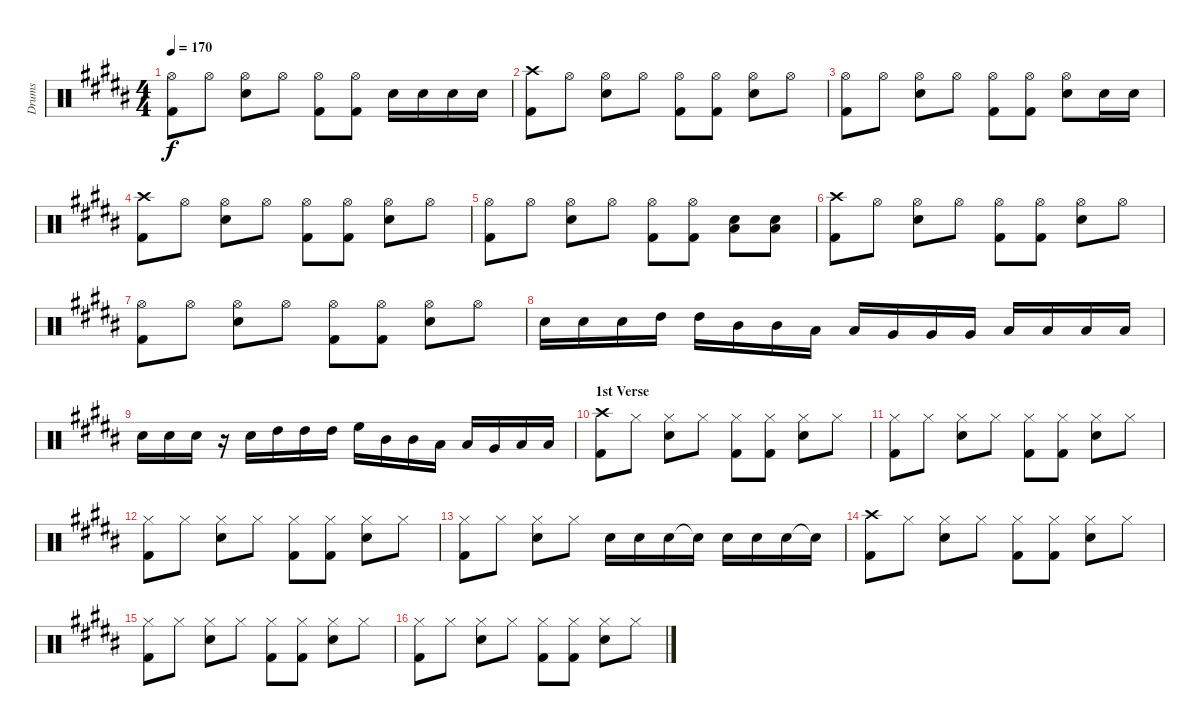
\track ("Drums" "Drums") {instrument percussion}
\staff {score}
\articulation defaults
\ts (4 4)
\tempo 170
\clef neutral
\ks b
("Hi-Hat (open)" "Kick (hit) 2").8{dy f} "Hi-Hat (open)".8 ("Hi-Hat (open)" "Electric Snare (hit)").8 "Hi-Hat (open)".8 ("Hi-Hat (open)" "Kick (hit) 2").8 ("Hi-Hat (open)" "Kick (hit) 2").8 "Electric Snare (hit)".16 "Electric Snare (hit)".16 "Electric Snare (hit)".16 "Electric Snare (hit)".16 |
("Crash high (hit)" "Kick (hit) 2").8 "Hi-Hat (open)".8 ("Hi-Hat (open)" "Electric Snare (hit)").8 "Hi-Hat (open)".8 ("Hi-Hat (open)" "Kick (hit) 2").8 ("Hi-Hat (open)" "Kick (hit) 2").8 ("Hi-Hat (open)" "Electric Snare (hit)").8 "Hi-Hat (open)".8 |
("Hi-Hat (open)" "Kick (hit) 2").8 "Hi-Hat (open)".8 ("Hi-Hat (open)" "Electric Snare (hit)").8 "Hi-Hat (open)".8 ("Hi-Hat (open)" "Kick (hit) 2").8 ("Hi-Hat (open)" "Kick (hit) 2").8 ("Hi-Hat (open)" "Electric Snare (hit)").8 "Electric Snare (hit)".16 "Electric Snare (hit)".16 |
("Crash high (hit)" "Kick (hit) 2").8 "Hi-Hat (open)".8 ("Hi-Hat (open)" "Electric Snare (hit)").8 "Hi-Hat (open)".8 ("Hi-Hat (open)" "Kick (hit) 2").8 ("Hi-Hat (open)" "Kick (hit) 2").8 ("Hi-Hat (open)" "Electric Snare (hit)").8 "Hi-Hat (open)".8 |
("Hi-Hat (open)" "Kick (hit) 2").8 "Hi-Hat (open)".8 ("Hi-Hat (open)" "Electric Snare (hit)").8 "Hi-Hat (open)".8 ("Hi-Hat (open)" "Kick (hit) 2").8 ("Hi-Hat (open)" "Kick (hit) 2").8 ("Low Tom (hit)" "Electric Snare (hit)").8 ("Low Tom (hit)" "Electric Snare (hit)").8 |
("Crash high (hit)" "Kick (hit) 2").8 "Hi-Hat (open)".8 ("Hi-Hat (open)" "Electric Snare (hit)").8 "Hi-Hat (open)".8 ("Hi-Hat (open)" "Kick (hit) 2").8 ("Hi-Hat (open)" "Kick (hit) 2").8 ("Hi-Hat (open)" "Electric Snare (hit)").8 "Hi-Hat (open)".8 |
("Hi-Hat (open)" "Kick (hit) 2").8 "Hi-Hat (open)".8 ("Hi-Hat (open)" "Electric Snare (hit)").8 "Hi-Hat (open)".8 ("Hi-Hat (open)" "Kick (hit) 2").8 ("Hi-Hat (open)" "Kick (hit) 2").8 ("Hi-Hat (open)" "Electric Snare (hit)").8 "Hi-Hat (open)".8 |
"Electric Snare (hit)".16 "Electric Snare (hit)".16 "Electric Snare (hit)".16 "High Tom (hit)".16 "High Tom (hit)".16 "Mid Tom (hit)".16 "Mid Tom (hit)".16 "Low Tom (hit)".16 "Low Tom (hit)".16 "Very Low Tom (hit)".16 "Very Low Tom (hit)".16 "Very Low Tom (hit)".16 "Low Floor Tom (hit)".16 "Low Floor Tom (hit)".16 "Low Floor Tom (hit)".16 "Low Floor Tom (hit)".16 |
"Electric Snare (hit)".16 "Electric Snare (hit)".16 "Electric Snare (hit)".16 r.16 "Electric Snare (hit)".16 "High Tom (hit)".16 "High Tom (hit)".16 "High Tom (hit)".16 "High Floor Tom (hit)".16 "Mid Tom (hit)".16 "Mid Tom (hit)".16 "Low Tom (hit)".16 "Low Tom (hit)".16 "Very Low Tom (hit)".16 "Low Floor Tom (hit)".16 "Low Floor Tom (hit)".16 |
\section ("" "1st Verse")
("Crash high (hit)" "Kick (hit) 2").8 "Hi-Hat (closed)".8 ("Hi-Hat (closed)" "Electric Snare (hit)").8 "Hi-Hat (closed)".8 ("Hi-Hat (closed)" "Kick (hit) 2").8 ("Hi-Hat (closed)" "Kick (hit) 2").8 ("Hi-Hat (closed)" "Electric Snare (hit)").8 "Hi-Hat (closed)".8 |
("Hi-Hat (closed)" "Kick (hit) 2").8 "Hi-Hat (closed)".8 ("Hi-Hat (closed)" "Electric Snare (hit)").8 "Hi-Hat (closed)".8 ("Hi-Hat (closed)" "Kick (hit) 2").8 ("Hi-Hat (closed)" "Kick (hit) 2").8 ("Hi-Hat (closed)" "Electric Snare (hit)").8 "Hi-Hat (closed)".8 |
("Hi-Hat (closed)" "Kick (hit) 2").8 "Hi-Hat (closed)".8 ("Hi-Hat (closed)" "Electric Snare (hit)").8 "Hi-Hat (closed)".8 ("Hi-Hat (closed)" "Kick (hit) 2").8 ("Hi-Hat (closed)" "Kick (hit) 2").8 ("Hi-Hat (closed)" "Electric Snare (hit)").8 "Hi-Hat (closed)".8 |
("Hi-Hat (closed)" "Kick (hit) 2").8 "Hi-Hat (closed)".8 ("Hi-Hat (closed)" "Electric Snare (hit)").8 "Hi-Hat (closed)".8 "Electric Snare (hit)".16 "Electric Snare (hit)".16 "Electric Snare (hit)".16 "Electric Snare (hit)"{t}.16 "Electric Snare (hit)".16 "Electric Snare (hit)".16 "Electric Snare (hit)".16 "Electric Snare (hit)"{t}.16 |
("Crash high (hit)" "Kick (hit) 2").8 "Hi-Hat (closed)".8 ("Hi-Hat (closed)" "Electric Snare (hit)").8 "Hi-Hat (closed)".8 ("Hi-Hat (closed)" "Kick (hit) 2").8 ("Hi-Hat (closed)" "Kick (hit) 2").8 ("Hi-Hat (closed)" "Electric Snare (hit)").8 "Hi-Hat (closed)".8 |
("Hi-Hat (closed)" "Kick (hit) 2").8 "Hi-Hat (closed)".8 ("Hi-Hat (closed)" "Electric Snare (hit)").8 "Hi-Hat (closed)".8 ("Hi-Hat (closed)" "Kick (hit) 2").8 ("Hi-Hat (closed)" "Kick (hit) 2").8 ("Hi-Hat (closed)" "Electric Snare (hit)").8 "Hi-Hat (closed)".8 |
("Hi-Hat (closed)" "Kick (hit) 2").8 "Hi-Hat (closed)".8 ("Hi-Hat (closed)" "Electric Snare (hit)").8 "Hi-Hat (closed)".8 ("Hi-Hat (closed)" "Kick (hit) 2").8 ("Hi-Hat (closed)" "Kick (hit) 2").8 ("Hi-Hat (closed)" "Electric Snare (hit)").8 "Hi-Hat (closed)".8
